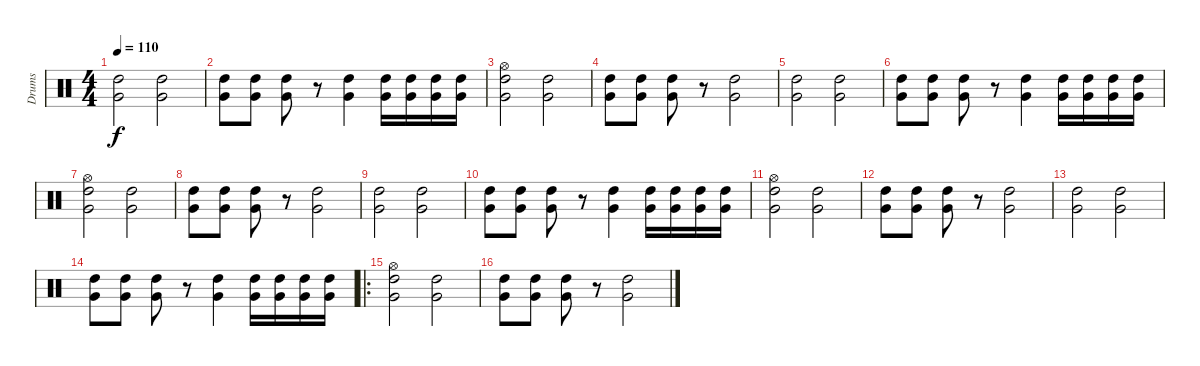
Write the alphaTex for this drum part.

\track ("Drums" "Drums") {instrument percussion}
\staff {score}
\articulation defaults
\ts (4 4)
\tempo 110
\clef neutral
\ks c
("Very Low Tom (hit)" "High Tom (hit)").2{dy f} ("Very Low Tom (hit)" "High Tom (hit)").2 |
("Very Low Tom (hit)" "High Tom (hit)").8 ("Very Low Tom (hit)" "High Tom (hit)").8 ("Very Low Tom (hit)" "High Tom (hit)").8 r.8 ("Very Low Tom (hit)" "High Tom (hit)").4 ("Very Low Tom (hit)" "High Tom (hit)").16 ("Very Low Tom (hit)" "High Tom (hit)").16 ("Very Low Tom (hit)" "High Tom (hit)").16 ("Very Low Tom (hit)" "High Tom (hit)").16 |
("Hi-Hat (open)" "Very Low Tom (hit)" "High Tom (hit)").2 ("Very Low Tom (hit)" "High Tom (hit)").2 |
("Very Low Tom (hit)" "High Tom (hit)").8 ("Very Low Tom (hit)" "High Tom (hit)").8 ("Very Low Tom (hit)" "High Tom (hit)").8 r.8 ("Very Low Tom (hit)" "High Tom (hit)").2 |
("Very Low Tom (hit)" "High Tom (hit)").2 ("Very Low Tom (hit)" "High Tom (hit)").2 |
("Very Low Tom (hit)" "High Tom (hit)").8 ("Very Low Tom (hit)" "High Tom (hit)").8 ("Very Low Tom (hit)" "High Tom (hit)").8 r.8 ("Very Low Tom (hit)" "High Tom (hit)").4 ("Very Low Tom (hit)" "High Tom (hit)").16 ("Very Low Tom (hit)" "High Tom (hit)").16 ("Very Low Tom (hit)" "High Tom (hit)").16 ("Very Low Tom (hit)" "High Tom (hit)").16 |
("Hi-Hat (open)" "Very Low Tom (hit)" "High Tom (hit)").2 ("Very Low Tom (hit)" "High Tom (hit)").2 |
("Very Low Tom (hit)" "High Tom (hit)").8 ("Very Low Tom (hit)" "High Tom (hit)").8 ("Very Low Tom (hit)" "High Tom (hit)").8 r.8 ("Very Low Tom (hit)" "High Tom (hit)").2 |
("Very Low Tom (hit)" "High Tom (hit)").2 ("Very Low Tom (hit)" "High Tom (hit)").2 |
("Very Low Tom (hit)" "High Tom (hit)").8 ("Very Low Tom (hit)" "High Tom (hit)").8 ("Very Low Tom (hit)" "High Tom (hit)").8 r.8 ("Very Low Tom (hit)" "High Tom (hit)").4 ("Very Low Tom (hit)" "High Tom (hit)").16 ("Very Low Tom (hit)" "High Tom (hit)").16 ("Very Low Tom (hit)" "High Tom (hit)").16 ("Very Low Tom (hit)" "High Tom (hit)").16 |
("Hi-Hat (open)" "Very Low Tom (hit)" "High Tom (hit)").2 ("Very Low Tom (hit)" "High Tom (hit)").2 |
("Very Low Tom (hit)" "High Tom (hit)").8 ("Very Low Tom (hit)" "High Tom (hit)").8 ("Very Low Tom (hit)" "High Tom (hit)").8 r.8 ("Very Low Tom (hit)" "High Tom (hit)").2 |
("Very Low Tom (hit)" "High Tom (hit)").2 ("Very Low Tom (hit)" "High Tom (hit)").2 |
("Very Low Tom (hit)" "High Tom (hit)").8 ("Very Low Tom (hit)" "High Tom (hit)").8 ("Very Low Tom (hit)" "High Tom (hit)").8 r.8 ("Very Low Tom (hit)" "High Tom (hit)").4 ("Very Low Tom (hit)" "High Tom (hit)").16 ("Very Low Tom (hit)" "High Tom (hit)").16 ("Very Low Tom (hit)" "High Tom (hit)").16 ("Very Low Tom (hit)" "High Tom (hit)").16 |
\ro
("Hi-Hat (open)" "Very Low Tom (hit)" "High Tom (hit)").2 ("Very Low Tom (hit)" "High Tom (hit)").2 |
("Very Low Tom (hit)" "High Tom (hit)").8 ("Very Low Tom (hit)" "High Tom (hit)").8 ("Very Low Tom (hit)" "High Tom (hit)").8 r.8 ("Very Low Tom (hit)" "High Tom (hit)").2
